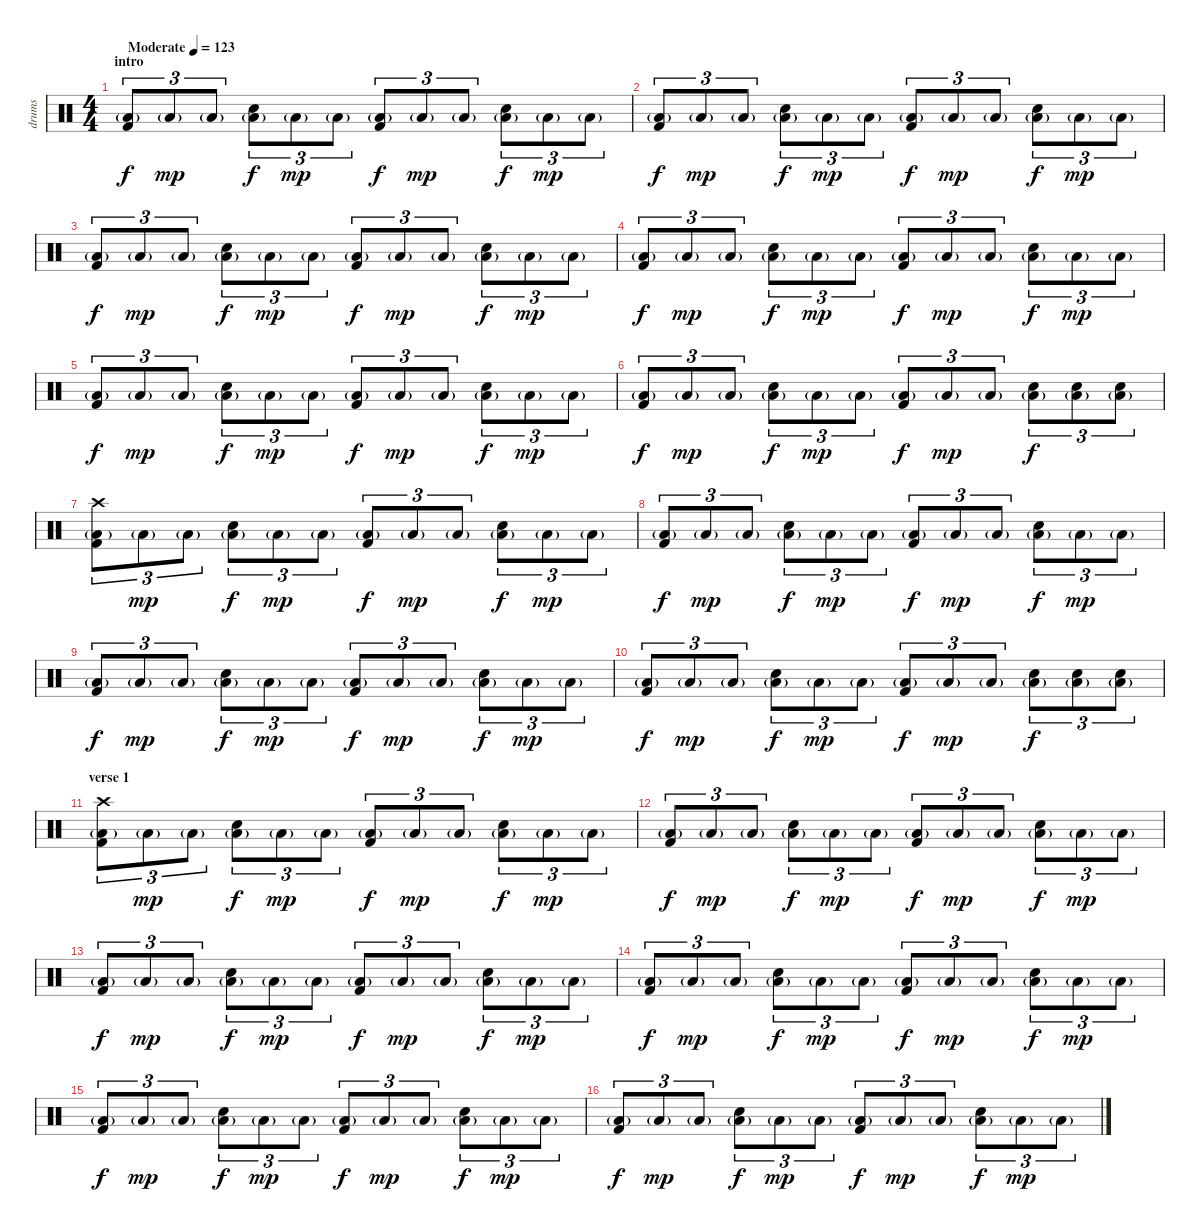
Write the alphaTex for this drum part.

\track ("drums" "drums") {instrument percussion}
\staff {score}
\articulation defaults
\ts (4 4)
\section ("" "intro")
\tempo (123 "Moderate")
\clef neutral
\ks c
("Low Floor Tom (hit)"{g} "Kick (hit) 2").8{tu (3 2) txt "" dy f} "Low Floor Tom (hit)"{g}.8{tu (3 2) txt "" dy mp} "Low Floor Tom (hit)"{g}.8{tu (3 2) txt ""} ("Low Floor Tom (hit)"{g} "Electric Snare (hit)").8{tu (3 2) txt "" dy f} "Low Floor Tom (hit)"{g}.8{tu (3 2) txt "" dy mp} "Low Floor Tom (hit)"{g}.8{tu (3 2) txt ""} ("Low Floor Tom (hit)"{g} "Kick (hit) 2").8{tu (3 2) txt "" dy f} "Low Floor Tom (hit)"{g}.8{tu (3 2) txt "" dy mp} "Low Floor Tom (hit)"{g}.8{tu (3 2) txt ""} ("Low Floor Tom (hit)"{g} "Electric Snare (hit)").8{tu (3 2) txt "" dy f} "Low Floor Tom (hit)"{g}.8{tu (3 2) txt "" dy mp} "Low Floor Tom (hit)"{g}.8{tu (3 2) txt ""} |
("Low Floor Tom (hit)"{g} "Kick (hit) 2").8{tu (3 2) txt "" dy f} "Low Floor Tom (hit)"{g}.8{tu (3 2) txt "" dy mp} "Low Floor Tom (hit)"{g}.8{tu (3 2) txt ""} ("Low Floor Tom (hit)"{g} "Electric Snare (hit)").8{tu (3 2) txt "" dy f} "Low Floor Tom (hit)"{g}.8{tu (3 2) txt "" dy mp} "Low Floor Tom (hit)"{g}.8{tu (3 2) txt ""} ("Low Floor Tom (hit)"{g} "Kick (hit) 2").8{tu (3 2) txt "" dy f} "Low Floor Tom (hit)"{g}.8{tu (3 2) txt "" dy mp} "Low Floor Tom (hit)"{g}.8{tu (3 2) txt ""} ("Low Floor Tom (hit)"{g} "Electric Snare (hit)").8{tu (3 2) txt "" dy f} "Low Floor Tom (hit)"{g}.8{tu (3 2) txt "" dy mp} "Low Floor Tom (hit)"{g}.8{tu (3 2) txt ""} |
("Low Floor Tom (hit)"{g} "Kick (hit) 2").8{tu (3 2) txt "" dy f} "Low Floor Tom (hit)"{g}.8{tu (3 2) txt "" dy mp} "Low Floor Tom (hit)"{g}.8{tu (3 2) txt ""} ("Low Floor Tom (hit)"{g} "Electric Snare (hit)").8{tu (3 2) txt "" dy f} "Low Floor Tom (hit)"{g}.8{tu (3 2) txt "" dy mp} "Low Floor Tom (hit)"{g}.8{tu (3 2) txt ""} ("Low Floor Tom (hit)"{g} "Kick (hit) 2").8{tu (3 2) txt "" dy f} "Low Floor Tom (hit)"{g}.8{tu (3 2) txt "" dy mp} "Low Floor Tom (hit)"{g}.8{tu (3 2) txt ""} ("Low Floor Tom (hit)"{g} "Electric Snare (hit)").8{tu (3 2) txt "" dy f} "Low Floor Tom (hit)"{g}.8{tu (3 2) txt "" dy mp} "Low Floor Tom (hit)"{g}.8{tu (3 2) txt ""} |
("Low Floor Tom (hit)"{g} "Kick (hit) 2").8{tu (3 2) txt "" dy f} "Low Floor Tom (hit)"{g}.8{tu (3 2) txt "" dy mp} "Low Floor Tom (hit)"{g}.8{tu (3 2) txt ""} ("Low Floor Tom (hit)"{g} "Electric Snare (hit)").8{tu (3 2) txt "" dy f} "Low Floor Tom (hit)"{g}.8{tu (3 2) txt "" dy mp} "Low Floor Tom (hit)"{g}.8{tu (3 2) txt ""} ("Low Floor Tom (hit)"{g} "Kick (hit) 2").8{tu (3 2) txt "" dy f} "Low Floor Tom (hit)"{g}.8{tu (3 2) txt "" dy mp} "Low Floor Tom (hit)"{g}.8{tu (3 2) txt ""} ("Low Floor Tom (hit)"{g} "Electric Snare (hit)").8{tu (3 2) txt "" dy f} "Low Floor Tom (hit)"{g}.8{tu (3 2) txt "" dy mp} "Low Floor Tom (hit)"{g}.8{tu (3 2) txt ""} |
("Low Floor Tom (hit)"{g} "Kick (hit) 2").8{tu (3 2) txt "" dy f} "Low Floor Tom (hit)"{g}.8{tu (3 2) txt "" dy mp} "Low Floor Tom (hit)"{g}.8{tu (3 2) txt ""} ("Low Floor Tom (hit)"{g} "Electric Snare (hit)").8{tu (3 2) txt "" dy f} "Low Floor Tom (hit)"{g}.8{tu (3 2) txt "" dy mp} "Low Floor Tom (hit)"{g}.8{tu (3 2) txt ""} ("Low Floor Tom (hit)"{g} "Kick (hit) 2").8{tu (3 2) txt "" dy f} "Low Floor Tom (hit)"{g}.8{tu (3 2) txt "" dy mp} "Low Floor Tom (hit)"{g}.8{tu (3 2) txt ""} ("Low Floor Tom (hit)"{g} "Electric Snare (hit)").8{tu (3 2) txt "" dy f} "Low Floor Tom (hit)"{g}.8{tu (3 2) txt "" dy mp} "Low Floor Tom (hit)"{g}.8{tu (3 2) txt ""} |
("Low Floor Tom (hit)"{g} "Kick (hit) 2").8{tu (3 2) txt "" dy f} "Low Floor Tom (hit)"{g}.8{tu (3 2) txt "" dy mp} "Low Floor Tom (hit)"{g}.8{tu (3 2) txt ""} ("Low Floor Tom (hit)"{g} "Electric Snare (hit)").8{tu (3 2) txt "" dy f} "Low Floor Tom (hit)"{g}.8{tu (3 2) txt "" dy mp} "Low Floor Tom (hit)"{g}.8{tu (3 2) txt ""} ("Low Floor Tom (hit)"{g} "Kick (hit) 2").8{tu (3 2) txt "" dy f} "Low Floor Tom (hit)"{g}.8{tu (3 2) txt "" dy mp} "Low Floor Tom (hit)"{g}.8{tu (3 2) txt ""} ("Low Floor Tom (hit)"{g} "Electric Snare (hit)").8{tu (3 2) txt "" dy f} ("Low Floor Tom (hit)"{g} "Electric Snare (hit)").8{tu (3 2) txt ""} ("Low Floor Tom (hit)"{g} "Electric Snare (hit)").8{tu (3 2) txt ""} |
("Low Floor Tom (hit)"{g} "Kick (hit) 2" "Crash high (hit)").8{tu (3 2) txt ""} "Low Floor Tom (hit)"{g}.8{tu (3 2) txt "" dy mp} "Low Floor Tom (hit)"{g}.8{tu (3 2) txt ""} ("Low Floor Tom (hit)"{g} "Electric Snare (hit)").8{tu (3 2) txt "" dy f} "Low Floor Tom (hit)"{g}.8{tu (3 2) txt "" dy mp} "Low Floor Tom (hit)"{g}.8{tu (3 2) txt ""} ("Low Floor Tom (hit)"{g} "Kick (hit) 2").8{tu (3 2) txt "" dy f} "Low Floor Tom (hit)"{g}.8{tu (3 2) txt "" dy mp} "Low Floor Tom (hit)"{g}.8{tu (3 2) txt ""} ("Low Floor Tom (hit)"{g} "Electric Snare (hit)").8{tu (3 2) txt "" dy f} "Low Floor Tom (hit)"{g}.8{tu (3 2) txt "" dy mp} "Low Floor Tom (hit)"{g}.8{tu (3 2) txt ""} |
("Low Floor Tom (hit)"{g} "Kick (hit) 2").8{tu (3 2) txt "" dy f} "Low Floor Tom (hit)"{g}.8{tu (3 2) txt "" dy mp} "Low Floor Tom (hit)"{g}.8{tu (3 2) txt ""} ("Low Floor Tom (hit)"{g} "Electric Snare (hit)").8{tu (3 2) txt "" dy f} "Low Floor Tom (hit)"{g}.8{tu (3 2) txt "" dy mp} "Low Floor Tom (hit)"{g}.8{tu (3 2) txt ""} ("Low Floor Tom (hit)"{g} "Kick (hit) 2").8{tu (3 2) txt "" dy f} "Low Floor Tom (hit)"{g}.8{tu (3 2) txt "" dy mp} "Low Floor Tom (hit)"{g}.8{tu (3 2) txt ""} ("Low Floor Tom (hit)"{g} "Electric Snare (hit)").8{tu (3 2) txt "" dy f} "Low Floor Tom (hit)"{g}.8{tu (3 2) txt "" dy mp} "Low Floor Tom (hit)"{g}.8{tu (3 2) txt ""} |
("Low Floor Tom (hit)"{g} "Kick (hit) 2").8{tu (3 2) txt "" dy f} "Low Floor Tom (hit)"{g}.8{tu (3 2) txt "" dy mp} "Low Floor Tom (hit)"{g}.8{tu (3 2) txt ""} ("Low Floor Tom (hit)"{g} "Electric Snare (hit)").8{tu (3 2) txt "" dy f} "Low Floor Tom (hit)"{g}.8{tu (3 2) txt "" dy mp} "Low Floor Tom (hit)"{g}.8{tu (3 2) txt ""} ("Low Floor Tom (hit)"{g} "Kick (hit) 2").8{tu (3 2) txt "" dy f} "Low Floor Tom (hit)"{g}.8{tu (3 2) txt "" dy mp} "Low Floor Tom (hit)"{g}.8{tu (3 2) txt ""} ("Low Floor Tom (hit)"{g} "Electric Snare (hit)").8{tu (3 2) txt "" dy f} "Low Floor Tom (hit)"{g}.8{tu (3 2) txt "" dy mp} "Low Floor Tom (hit)"{g}.8{tu (3 2) txt ""} |
("Low Floor Tom (hit)"{g} "Kick (hit) 2").8{tu (3 2) txt "" dy f} "Low Floor Tom (hit)"{g}.8{tu (3 2) txt "" dy mp} "Low Floor Tom (hit)"{g}.8{tu (3 2) txt ""} ("Low Floor Tom (hit)"{g} "Electric Snare (hit)").8{tu (3 2) txt "" dy f} "Low Floor Tom (hit)"{g}.8{tu (3 2) txt "" dy mp} "Low Floor Tom (hit)"{g}.8{tu (3 2) txt ""} ("Low Floor Tom (hit)"{g} "Kick (hit) 2").8{tu (3 2) txt "" dy f} "Low Floor Tom (hit)"{g}.8{tu (3 2) txt "" dy mp} "Low Floor Tom (hit)"{g}.8{tu (3 2) txt ""} ("Low Floor Tom (hit)"{g} "Electric Snare (hit)").8{tu (3 2) txt "" dy f} ("Low Floor Tom (hit)"{g} "Electric Snare (hit)").8{tu (3 2) txt ""} ("Low Floor Tom (hit)"{g} "Electric Snare (hit)").8{tu (3 2) txt ""} |
\section ("" "verse 1 ")
("Low Floor Tom (hit)"{g} "Kick (hit) 2" "Crash high (hit)").8{tu (3 2) txt ""} "Low Floor Tom (hit)"{g}.8{tu (3 2) txt "" dy mp} "Low Floor Tom (hit)"{g}.8{tu (3 2) txt ""} ("Low Floor Tom (hit)"{g} "Electric Snare (hit)").8{tu (3 2) txt "" dy f} "Low Floor Tom (hit)"{g}.8{tu (3 2) txt "" dy mp} "Low Floor Tom (hit)"{g}.8{tu (3 2) txt ""} ("Low Floor Tom (hit)"{g} "Kick (hit) 2").8{tu (3 2) txt "" dy f} "Low Floor Tom (hit)"{g}.8{tu (3 2) txt "" dy mp} "Low Floor Tom (hit)"{g}.8{tu (3 2) txt ""} ("Low Floor Tom (hit)"{g} "Electric Snare (hit)").8{tu (3 2) txt "" dy f} "Low Floor Tom (hit)"{g}.8{tu (3 2) txt "" dy mp} "Low Floor Tom (hit)"{g}.8{tu (3 2) txt ""} |
("Low Floor Tom (hit)"{g} "Kick (hit) 2").8{tu (3 2) txt "" dy f} "Low Floor Tom (hit)"{g}.8{tu (3 2) txt "" dy mp} "Low Floor Tom (hit)"{g}.8{tu (3 2) txt ""} ("Low Floor Tom (hit)"{g} "Electric Snare (hit)").8{tu (3 2) txt "" dy f} "Low Floor Tom (hit)"{g}.8{tu (3 2) txt "" dy mp} "Low Floor Tom (hit)"{g}.8{tu (3 2) txt ""} ("Low Floor Tom (hit)"{g} "Kick (hit) 2").8{tu (3 2) txt "" dy f} "Low Floor Tom (hit)"{g}.8{tu (3 2) txt "" dy mp} "Low Floor Tom (hit)"{g}.8{tu (3 2) txt ""} ("Low Floor Tom (hit)"{g} "Electric Snare (hit)").8{tu (3 2) txt "" dy f} "Low Floor Tom (hit)"{g}.8{tu (3 2) txt "" dy mp} "Low Floor Tom (hit)"{g}.8{tu (3 2) txt ""} |
("Low Floor Tom (hit)"{g} "Kick (hit) 2").8{tu (3 2) txt "" dy f} "Low Floor Tom (hit)"{g}.8{tu (3 2) txt "" dy mp} "Low Floor Tom (hit)"{g}.8{tu (3 2) txt ""} ("Low Floor Tom (hit)"{g} "Electric Snare (hit)").8{tu (3 2) txt "" dy f} "Low Floor Tom (hit)"{g}.8{tu (3 2) txt "" dy mp} "Low Floor Tom (hit)"{g}.8{tu (3 2) txt ""} ("Low Floor Tom (hit)"{g} "Kick (hit) 2").8{tu (3 2) txt "" dy f} "Low Floor Tom (hit)"{g}.8{tu (3 2) txt "" dy mp} "Low Floor Tom (hit)"{g}.8{tu (3 2) txt ""} ("Low Floor Tom (hit)"{g} "Electric Snare (hit)").8{tu (3 2) txt "" dy f} "Low Floor Tom (hit)"{g}.8{tu (3 2) txt "" dy mp} "Low Floor Tom (hit)"{g}.8{tu (3 2) txt ""} |
("Low Floor Tom (hit)"{g} "Kick (hit) 2").8{tu (3 2) txt "" dy f} "Low Floor Tom (hit)"{g}.8{tu (3 2) txt "" dy mp} "Low Floor Tom (hit)"{g}.8{tu (3 2) txt ""} ("Low Floor Tom (hit)"{g} "Electric Snare (hit)").8{tu (3 2) txt "" dy f} "Low Floor Tom (hit)"{g}.8{tu (3 2) txt "" dy mp} "Low Floor Tom (hit)"{g}.8{tu (3 2) txt ""} ("Low Floor Tom (hit)"{g} "Kick (hit) 2").8{tu (3 2) txt "" dy f} "Low Floor Tom (hit)"{g}.8{tu (3 2) txt "" dy mp} "Low Floor Tom (hit)"{g}.8{tu (3 2) txt ""} ("Low Floor Tom (hit)"{g} "Electric Snare (hit)").8{tu (3 2) txt "" dy f} "Low Floor Tom (hit)"{g}.8{tu (3 2) txt "" dy mp} "Low Floor Tom (hit)"{g}.8{tu (3 2) txt ""} |
("Low Floor Tom (hit)"{g} "Kick (hit) 2").8{tu (3 2) txt "" dy f} "Low Floor Tom (hit)"{g}.8{tu (3 2) txt "" dy mp} "Low Floor Tom (hit)"{g}.8{tu (3 2) txt ""} ("Low Floor Tom (hit)"{g} "Electric Snare (hit)").8{tu (3 2) txt "" dy f} "Low Floor Tom (hit)"{g}.8{tu (3 2) txt "" dy mp} "Low Floor Tom (hit)"{g}.8{tu (3 2) txt ""} ("Low Floor Tom (hit)"{g} "Kick (hit) 2").8{tu (3 2) txt "" dy f} "Low Floor Tom (hit)"{g}.8{tu (3 2) txt "" dy mp} "Low Floor Tom (hit)"{g}.8{tu (3 2) txt ""} ("Low Floor Tom (hit)"{g} "Electric Snare (hit)").8{tu (3 2) txt "" dy f} "Low Floor Tom (hit)"{g}.8{tu (3 2) txt "" dy mp} "Low Floor Tom (hit)"{g}.8{tu (3 2) txt ""} |
("Low Floor Tom (hit)"{g} "Kick (hit) 2").8{tu (3 2) txt "" dy f} "Low Floor Tom (hit)"{g}.8{tu (3 2) txt "" dy mp} "Low Floor Tom (hit)"{g}.8{tu (3 2) txt ""} ("Low Floor Tom (hit)"{g} "Electric Snare (hit)").8{tu (3 2) txt "" dy f} "Low Floor Tom (hit)"{g}.8{tu (3 2) txt "" dy mp} "Low Floor Tom (hit)"{g}.8{tu (3 2) txt ""} ("Low Floor Tom (hit)"{g} "Kick (hit) 2").8{tu (3 2) txt "" dy f} "Low Floor Tom (hit)"{g}.8{tu (3 2) txt "" dy mp} "Low Floor Tom (hit)"{g}.8{tu (3 2) txt ""} ("Low Floor Tom (hit)"{g} "Electric Snare (hit)").8{tu (3 2) txt "" dy f} "Low Floor Tom (hit)"{g}.8{tu (3 2) txt "" dy mp} "Low Floor Tom (hit)"{g}.8{tu (3 2) txt ""}
